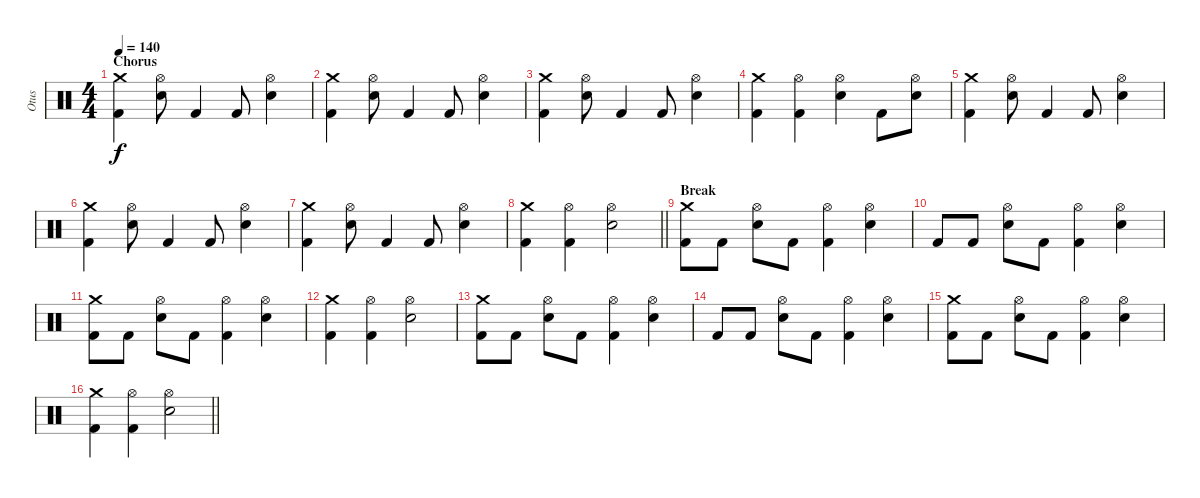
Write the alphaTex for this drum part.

\track ("Otus" "Otus") {instrument percussion}
\staff {score}
\articulation defaults
\ts (4 4)
\section ("" "Chorus")
\tempo 140
\clef neutral
\ks c
("Crash medium (hit)" "Kick (hit) 2").4{dy f} ("Hi-Hat (open)" "Electric Snare (hit)").8 "Kick (hit) 2".4 "Kick (hit) 2".8 ("Hi-Hat (open)" "Electric Snare (hit)").4 |
("Crash medium (hit)" "Kick (hit) 2").4 ("Hi-Hat (open)" "Electric Snare (hit)").8 "Kick (hit) 2".4 "Kick (hit) 2".8 ("Hi-Hat (open)" "Electric Snare (hit)").4 |
("Crash medium (hit)" "Kick (hit) 2").4 ("Hi-Hat (open)" "Electric Snare (hit)").8 "Kick (hit) 2".4 "Kick (hit) 2".8 ("Hi-Hat (open)" "Electric Snare (hit)").4 |
("Crash medium (hit)" "Kick (hit) 2").4 ("Hi-Hat (open)" "Kick (hit) 2").4 ("Hi-Hat (open)" "Electric Snare (hit)").4 "Kick (hit) 2".8 ("Hi-Hat (open)" "Electric Snare (hit)").8 |
("Crash medium (hit)" "Kick (hit) 2").4 ("Hi-Hat (open)" "Electric Snare (hit)").8 "Kick (hit) 2".4 "Kick (hit) 2".8 ("Hi-Hat (open)" "Electric Snare (hit)").4 |
("Crash medium (hit)" "Kick (hit) 2").4 ("Hi-Hat (open)" "Electric Snare (hit)").8 "Kick (hit) 2".4 "Kick (hit) 2".8 ("Hi-Hat (open)" "Electric Snare (hit)").4 |
("Crash medium (hit)" "Kick (hit) 2").4 ("Hi-Hat (open)" "Electric Snare (hit)").8 "Kick (hit) 2".4 "Kick (hit) 2".8 ("Hi-Hat (open)" "Electric Snare (hit)").4 |
\barLineRight lightlight
("Crash medium (hit)" "Kick (hit) 2").4 ("Hi-Hat (open)" "Kick (hit) 2").4 ("Hi-Hat (open)" "Electric Snare (hit)").2 |
\section ("" "Break")
("Crash medium (hit)" "Kick (hit) 2").8 "Kick (hit) 2".8 ("Hi-Hat (open)" "Electric Snare (hit)").8 "Kick (hit) 2".8 ("Hi-Hat (open)" "Kick (hit) 2").4 ("Hi-Hat (open)" "Electric Snare (hit)").4 |
"Kick (hit) 2".8 "Kick (hit) 2".8 ("Hi-Hat (open)" "Electric Snare (hit)").8 "Kick (hit) 2".8 ("Hi-Hat (open)" "Kick (hit) 2").4 ("Hi-Hat (open)" "Electric Snare (hit)").4 |
("Crash medium (hit)" "Kick (hit) 2").8 "Kick (hit) 2".8 ("Hi-Hat (open)" "Electric Snare (hit)").8 "Kick (hit) 2".8 ("Hi-Hat (open)" "Kick (hit) 2").4 ("Hi-Hat (open)" "Electric Snare (hit)").4 |
("Crash medium (hit)" "Kick (hit) 2").4 ("Hi-Hat (open)" "Kick (hit) 2").4 ("Hi-Hat (open)" "Electric Snare (hit)").2 |
("Crash medium (hit)" "Kick (hit) 2").8 "Kick (hit) 2".8 ("Hi-Hat (open)" "Electric Snare (hit)").8 "Kick (hit) 2".8 ("Hi-Hat (open)" "Kick (hit) 2").4 ("Hi-Hat (open)" "Electric Snare (hit)").4 |
"Kick (hit) 2".8 "Kick (hit) 2".8 ("Hi-Hat (open)" "Electric Snare (hit)").8 "Kick (hit) 2".8 ("Hi-Hat (open)" "Kick (hit) 2").4 ("Hi-Hat (open)" "Electric Snare (hit)").4 |
("Crash medium (hit)" "Kick (hit) 2").8 "Kick (hit) 2".8 ("Hi-Hat (open)" "Electric Snare (hit)").8 "Kick (hit) 2".8 ("Hi-Hat (open)" "Kick (hit) 2").4 ("Hi-Hat (open)" "Electric Snare (hit)").4 |
\barLineRight lightlight
("Crash medium (hit)" "Kick (hit) 2").4 ("Hi-Hat (open)" "Kick (hit) 2").4 ("Hi-Hat (open)" "Electric Snare (hit)").2
